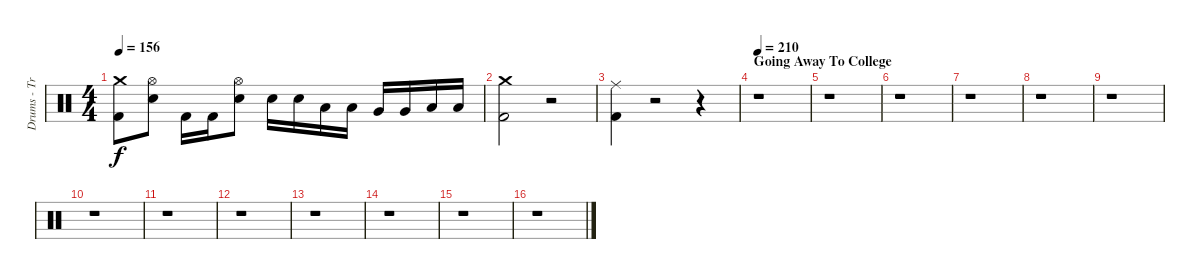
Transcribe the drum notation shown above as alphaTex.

\track ("Drums - Travis Barker" "Drums - Tr") {instrument percussion}
\staff {score}
\articulation defaults
\ts (4 4)
\tempo 156
\clef neutral
\ks c
("Crash medium (hit)" "Kick (hit) 2").8{dy f} ("Hi-Hat (open)" "Electric Snare (hit)").8 "Kick (hit) 2".16 "Kick (hit) 2".16 ("Hi-Hat (open)" "Electric Snare (hit)").8 "Electric Snare (hit)".16 "Electric Snare (hit)".16 "Low Tom (hit)".16 "Low Tom (hit)".16 "Very Low Tom (hit)".16 "Very Low Tom (hit)".16 "Low Floor Tom (hit)".16 "Low Floor Tom (hit)".16 |
("Crash medium (hit)" "Kick (hit) 2").2 r.2 |
("Ride (middle)" "Kick (hit) 2").4 r.2 r.4 |
\section ("" "Going Away To College")
\tempo 210
r.1 |
r.1 |
r.1 |
r.1 |
r.1 |
r.1 |
r.1 |
r.1 |
r.1 |
r.1 |
r.1 |
r.1 |
r.1
